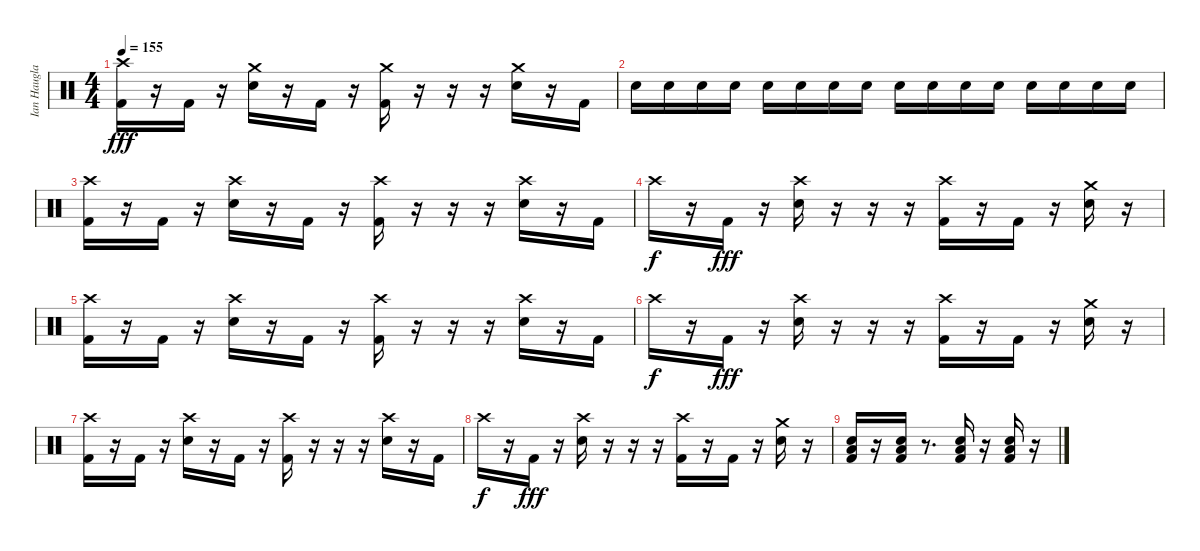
\track ("Ian Haugland" "Ian Haugla") {instrument percussion}
\staff {score}
\articulation defaults
\ts (4 4)
\tempo 155
\clef neutral
\ks c
("Crash high (hit)" "Kick (hit) 2").16{dy fff} r.16 "Kick (hit) 2".16 r.16 ("Crash medium (hit)" "Electric Snare (hit)").16 r.16 "Kick (hit) 2".16 r.16 ("Crash medium (hit)" "Kick (hit) 2").16 r.16 r.16 r.16 ("Crash medium (hit)" "Electric Snare (hit)").16 r.16 "Kick (hit) 2".16 |
"Electric Snare (hit)".16 "Electric Snare (hit)".16 "Electric Snare (hit)".16 "Electric Snare (hit)".16 "Electric Snare (hit)".16 "Electric Snare (hit)".16 "Electric Snare (hit)".16 "Electric Snare (hit)".16 "Electric Snare (hit)".16 "Electric Snare (hit)".16 "Electric Snare (hit)".16 "Electric Snare (hit)".16 "Electric Snare (hit)".16 "Electric Snare (hit)".16 "Electric Snare (hit)".16 "Electric Snare (hit)".16 |
("Crash high (hit)" "Kick (hit) 2").16 r.16 "Kick (hit) 2".16 r.16 ("Crash high (hit)" "Electric Snare (hit)").16 r.16 "Kick (hit) 2".16 r.16 ("Crash high (hit)" "Kick (hit) 2").16 r.16 r.16 r.16 ("Crash high (hit)" "Electric Snare (hit)").16 r.16 "Kick (hit) 2".16 |
"Crash high (hit)".16{dy f} r.16 "Kick (hit) 2".16{dy fff} r.16 ("Crash high (hit)" "Electric Snare (hit)").16 r.16 r.16 r.16 ("Crash high (hit)" "Kick (hit) 2").16 r.16 "Kick (hit) 2".16 r.16 ("Crash medium (hit)" "Electric Snare (hit)").16 r.16 |
("Crash high (hit)" "Kick (hit) 2").16 r.16 "Kick (hit) 2".16 r.16 ("Crash high (hit)" "Electric Snare (hit)").16 r.16 "Kick (hit) 2".16 r.16 ("Crash high (hit)" "Kick (hit) 2").16 r.16 r.16 r.16 ("Crash high (hit)" "Electric Snare (hit)").16 r.16 "Kick (hit) 2".16 |
"Crash high (hit)".16{dy f} r.16 "Kick (hit) 2".16{dy fff} r.16 ("Crash high (hit)" "Electric Snare (hit)").16 r.16 r.16 r.16 ("Crash high (hit)" "Kick (hit) 2").16 r.16 "Kick (hit) 2".16 r.16 ("Crash medium (hit)" "Electric Snare (hit)").16 r.16 |
("Crash high (hit)" "Kick (hit) 2").16 r.16 "Kick (hit) 2".16 r.16 ("Crash high (hit)" "Electric Snare (hit)").16 r.16 "Kick (hit) 2".16 r.16 ("Crash high (hit)" "Kick (hit) 2").16 r.16 r.16 r.16 ("Crash high (hit)" "Electric Snare (hit)").16 r.16 "Kick (hit) 2".16 |
"Crash high (hit)".16{dy f} r.16 "Kick (hit) 2".16{dy fff} r.16 ("Crash high (hit)" "Electric Snare (hit)").16 r.16 r.16 r.16 ("Crash high (hit)" "Kick (hit) 2").16 r.16 "Kick (hit) 2".16 r.16 ("Crash medium (hit)" "Electric Snare (hit)").16 r.16 |
("Low Floor Tom (hit)" "Electric Snare (hit)" "Kick (hit) 2").16 r.16 ("Low Floor Tom (hit)" "Electric Snare (hit)" "Kick (hit) 2").16 r.8{d} ("Low Floor Tom (hit)" "Electric Snare (hit)" "Kick (hit) 2").16 r.16 ("Low Floor Tom (hit)" "Electric Snare (hit)" "Kick (hit) 2").16 r.16
